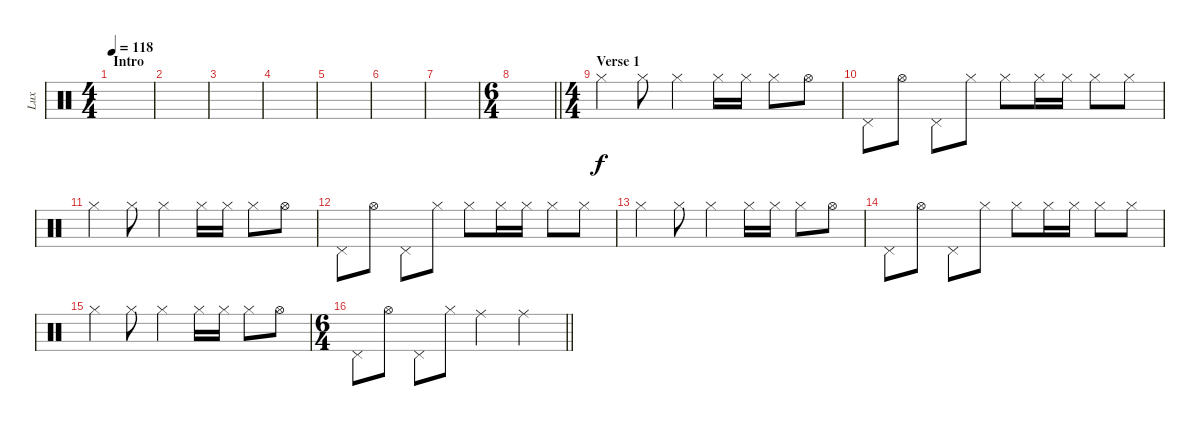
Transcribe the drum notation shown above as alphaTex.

\track ("Lux" "Lux") {instrument percussion}
\staff {score}
\articulation defaults
\ts (4 4)
\section ("" "Intro")
\tempo 118
\clef neutral
\ks c
|
|
|
|
|
|
|
\ts (6 4)
\barLineRight lightlight
|
\ts (4 4)
\section ("" "Verse 1")
"Hi-Hat (closed)".4 "Hi-Hat (closed)".8 "Hi-Hat (closed)".4 "Hi-Hat (closed)".16 "Hi-Hat (closed)".16 "Hi-Hat (closed)".8 "Hi-Hat (open)".8 |
"Pedal Hi-Hat (hit)".8 "Hi-Hat (open)".8 "Pedal Hi-Hat (hit)".8 "Hi-Hat (closed)".8 "Hi-Hat (closed)".8 "Hi-Hat (closed)".16 "Hi-Hat (closed)".16 "Hi-Hat (closed)".8 "Hi-Hat (closed)".8 |
"Hi-Hat (closed)".4 "Hi-Hat (closed)".8 "Hi-Hat (closed)".4 "Hi-Hat (closed)".16 "Hi-Hat (closed)".16 "Hi-Hat (closed)".8 "Hi-Hat (open)".8 |
"Pedal Hi-Hat (hit)".8 "Hi-Hat (open)".8 "Pedal Hi-Hat (hit)".8 "Hi-Hat (closed)".8 "Hi-Hat (closed)".8 "Hi-Hat (closed)".16 "Hi-Hat (closed)".16 "Hi-Hat (closed)".8 "Hi-Hat (closed)".8 |
"Hi-Hat (closed)".4 "Hi-Hat (closed)".8 "Hi-Hat (closed)".4 "Hi-Hat (closed)".16 "Hi-Hat (closed)".16 "Hi-Hat (closed)".8 "Hi-Hat (open)".8 |
"Pedal Hi-Hat (hit)".8 "Hi-Hat (open)".8 "Pedal Hi-Hat (hit)".8 "Hi-Hat (closed)".8 "Hi-Hat (closed)".8 "Hi-Hat (closed)".16 "Hi-Hat (closed)".16 "Hi-Hat (closed)".8 "Hi-Hat (closed)".8 |
"Hi-Hat (closed)".4 "Hi-Hat (closed)".8 "Hi-Hat (closed)".4 "Hi-Hat (closed)".16 "Hi-Hat (closed)".16 "Hi-Hat (closed)".8 "Hi-Hat (open)".8 |
\ts (6 4)
\barLineRight lightlight "Pedal Hi-Hat (hit)".8 "Hi-Hat (open)".8 "Pedal Hi-Hat (hit)".8 "Hi-Hat (closed)".8 "Ride (middle)".2 "Ride (middle)".2
